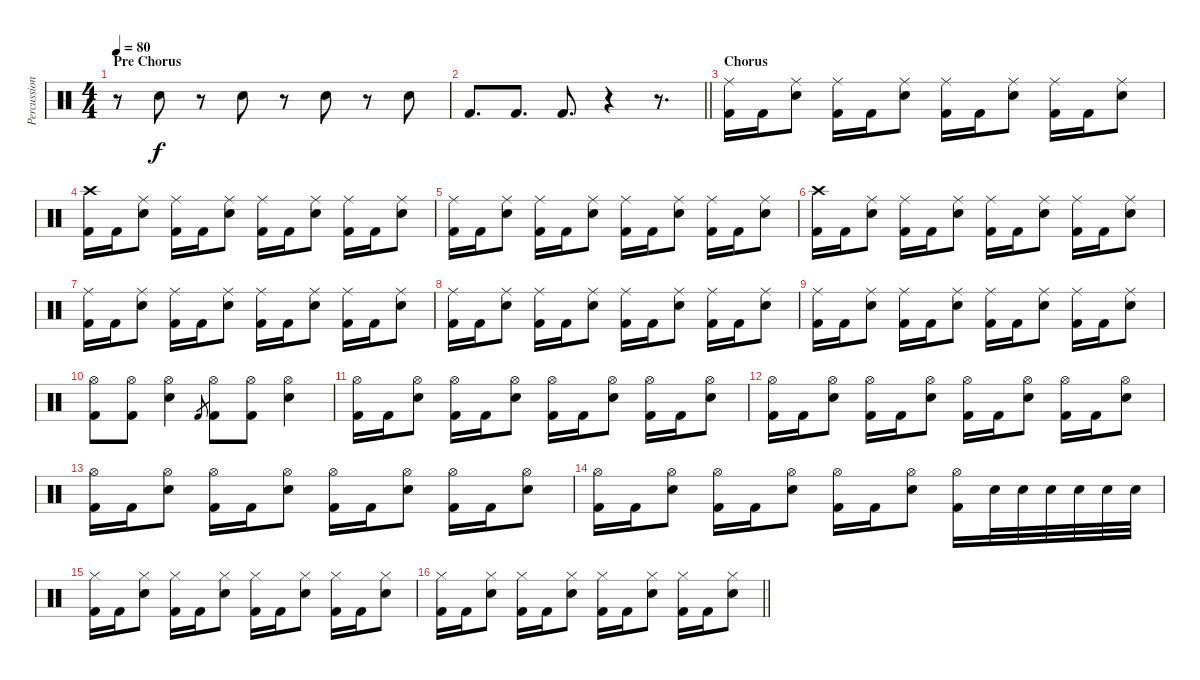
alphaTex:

\track ("Percussion" "Percussion") {instrument percussion}
\staff {score}
\articulation defaults
\ts (4 4)
\section ("" "Pre Chorus")
\tempo 80
\clef neutral
\ks c
r.8{dy f} "Snare (hit) 2".8 r.8 "Snare (hit) 2".8 r.8 "Snare (hit) 2".8 r.8 "Snare (hit) 2".8 |
\barLineRight lightlight "Kick (hit) 2".8{d} "Kick (hit) 2".8{d} "Kick (hit) 2".8{d}
r.4 r.8{d} |
\section ("" "Chorus")
("Ride (middle)" "Kick (hit) 2").16 "Kick (hit) 2".16 ("Ride (middle)" "Snare (hit) 2").8 ("Ride (middle)" "Kick (hit) 2").16 "Kick (hit) 2".16 ("Ride (middle)" "Snare (hit) 2").8 ("Ride (middle)" "Kick (hit) 2").16 "Kick (hit) 2".16 ("Ride (middle)" "Snare (hit) 2").8 ("Ride (middle)" "Kick (hit) 2").16 "Kick (hit) 2".16 ("Ride (middle)" "Snare (hit) 2").8 |
("Crash high (hit)" "Kick (hit) 2").16 "Kick (hit) 2".16 ("Ride (middle)" "Snare (hit) 2").8 ("Ride (middle)" "Kick (hit) 2").16 "Kick (hit) 2".16 ("Ride (middle)" "Snare (hit) 2").8 ("Ride (middle)" "Kick (hit) 2").16 "Kick (hit) 2".16 ("Ride (middle)" "Snare (hit) 2").8 ("Ride (middle)" "Kick (hit) 2").16 "Kick (hit) 2".16 ("Ride (middle)" "Snare (hit) 2").8 |
("Ride (middle)" "Kick (hit) 2").16 "Kick (hit) 2".16 ("Ride (middle)" "Snare (hit) 2").8 ("Ride (middle)" "Kick (hit) 2").16 "Kick (hit) 2".16 ("Ride (middle)" "Snare (hit) 2").8 ("Ride (middle)" "Kick (hit) 2").16 "Kick (hit) 2".16 ("Ride (middle)" "Snare (hit) 2").8 ("Ride (middle)" "Kick (hit) 2").16 "Kick (hit) 2".16 ("Ride (middle)" "Snare (hit) 2").8 |
("Crash high (hit)" "Kick (hit) 2").16 "Kick (hit) 2".16 ("Ride (middle)" "Snare (hit) 2").8 ("Ride (middle)" "Kick (hit) 2").16 "Kick (hit) 2".16 ("Ride (middle)" "Snare (hit) 2").8 ("Ride (middle)" "Kick (hit) 2").16 "Kick (hit) 2".16 ("Ride (middle)" "Snare (hit) 2").8 ("Ride (middle)" "Kick (hit) 2").16 "Kick (hit) 2".16 ("Ride (middle)" "Snare (hit) 2").8 |
("Ride (middle)" "Kick (hit) 2").16 "Kick (hit) 2".16 ("Ride (middle)" "Snare (hit) 2").8 ("Ride (middle)" "Kick (hit) 2").16 "Kick (hit) 2".16 ("Ride (middle)" "Snare (hit) 2").8 ("Ride (middle)" "Kick (hit) 2").16 "Kick (hit) 2".16 ("Ride (middle)" "Snare (hit) 2").8 ("Ride (middle)" "Kick (hit) 2").16 "Kick (hit) 2".16 ("Ride (middle)" "Snare (hit) 2").8 |
("Ride (middle)" "Kick (hit) 2").16 "Kick (hit) 2".16 ("Ride (middle)" "Snare (hit) 2").8 ("Ride (middle)" "Kick (hit) 2").16 "Kick (hit) 2".16 ("Ride (middle)" "Snare (hit) 2").8 ("Ride (middle)" "Kick (hit) 2").16 "Kick (hit) 2".16 ("Ride (middle)" "Snare (hit) 2").8 ("Ride (middle)" "Kick (hit) 2").16 "Kick (hit) 2".16 ("Ride (middle)" "Snare (hit) 2").8 |
("Ride (middle)" "Kick (hit) 2").16 "Kick (hit) 2".16 ("Ride (middle)" "Snare (hit) 2").8 ("Ride (middle)" "Kick (hit) 2").16 "Kick (hit) 2".16 ("Ride (middle)" "Snare (hit) 2").8 ("Ride (middle)" "Kick (hit) 2").16 "Kick (hit) 2".16 ("Ride (middle)" "Snare (hit) 2").8 ("Ride (middle)" "Kick (hit) 2").16 "Kick (hit) 2".16 ("Ride (middle)" "Snare (hit) 2").8 |
("Hi-Hat (open)" "Kick (hit) 2").8 ("Hi-Hat (open)" "Kick (hit) 2").8 ("Hi-Hat (open)" "Snare (hit) 2").4 "Kick (hit) 2".8{gr} ("Hi-Hat (open)" "Kick (hit) 2").8 ("Hi-Hat (open)" "Kick (hit) 2").8 ("Hi-Hat (open)" "Snare (hit) 2").4 |
("Hi-Hat (open)" "Kick (hit) 2").16 "Kick (hit) 2".16 ("Hi-Hat (open)" "Snare (hit) 2").8 ("Hi-Hat (open)" "Kick (hit) 2").16 "Kick (hit) 2".16 ("Hi-Hat (open)" "Snare (hit) 2").8 ("Hi-Hat (open)" "Kick (hit) 2").16 "Kick (hit) 2".16 ("Hi-Hat (open)" "Snare (hit) 2").8 ("Hi-Hat (open)" "Kick (hit) 2").16 "Kick (hit) 2".16 ("Hi-Hat (open)" "Snare (hit) 2").8 |
("Hi-Hat (open)" "Kick (hit) 2").16 "Kick (hit) 2".16 ("Hi-Hat (open)" "Snare (hit) 2").8 ("Hi-Hat (open)" "Kick (hit) 2").16 "Kick (hit) 2".16 ("Hi-Hat (open)" "Snare (hit) 2").8 ("Hi-Hat (open)" "Kick (hit) 2").16 "Kick (hit) 2".16 ("Hi-Hat (open)" "Snare (hit) 2").8 ("Hi-Hat (open)" "Kick (hit) 2").16 "Kick (hit) 2".16 ("Hi-Hat (open)" "Snare (hit) 2").8 |
("Hi-Hat (open)" "Kick (hit) 2").16 "Kick (hit) 2".16 ("Hi-Hat (open)" "Snare (hit) 2").8 ("Hi-Hat (open)" "Kick (hit) 2").16 "Kick (hit) 2".16 ("Hi-Hat (open)" "Snare (hit) 2").8 ("Hi-Hat (open)" "Kick (hit) 2").16 "Kick (hit) 2".16 ("Hi-Hat (open)" "Snare (hit) 2").8 ("Hi-Hat (open)" "Kick (hit) 2").16 "Kick (hit) 2".16 ("Hi-Hat (open)" "Snare (hit) 2").8 |
("Hi-Hat (open)" "Kick (hit) 2").16 "Kick (hit) 2".16 ("Hi-Hat (open)" "Snare (hit) 2").8 ("Hi-Hat (open)" "Kick (hit) 2").16 "Kick (hit) 2".16 ("Hi-Hat (open)" "Snare (hit) 2").8 ("Hi-Hat (open)" "Kick (hit) 2").16 "Kick (hit) 2".16 ("Hi-Hat (open)" "Snare (hit) 2").8 ("Hi-Hat (open)" "Kick (hit) 2").16 "Snare (hit) 2".32 "Snare (hit) 2".32 "Snare (hit) 2".32 "Snare (hit) 2".32 "Snare (hit) 2".32 "Snare (hit) 2".32 |
("Hi-Hat (closed)" "Kick (hit) 2").16 "Kick (hit) 2".16 ("Hi-Hat (closed)" "Snare (hit) 2").8 ("Hi-Hat (closed)" "Kick (hit) 2").16 "Kick (hit) 2".16 ("Hi-Hat (closed)" "Snare (hit) 2").8 ("Hi-Hat (closed)" "Kick (hit) 2").16 "Kick (hit) 2".16 ("Hi-Hat (closed)" "Snare (hit) 2").8 ("Hi-Hat (closed)" "Kick (hit) 2").16 "Kick (hit) 2".16 ("Hi-Hat (closed)" "Snare (hit) 2").8 |
\barLineRight lightlight
("Hi-Hat (closed)" "Kick (hit) 2").16 "Kick (hit) 2".16 ("Hi-Hat (closed)" "Snare (hit) 2").8 ("Hi-Hat (closed)" "Kick (hit) 2").16 "Kick (hit) 2".16 ("Hi-Hat (closed)" "Snare (hit) 2").8 ("Hi-Hat (closed)" "Kick (hit) 2").16 "Kick (hit) 2".16 ("Hi-Hat (closed)" "Snare (hit) 2").8 ("Hi-Hat (closed)" "Kick (hit) 2").16 "Kick (hit) 2".16 ("Hi-Hat (closed)" "Snare (hit) 2").8
